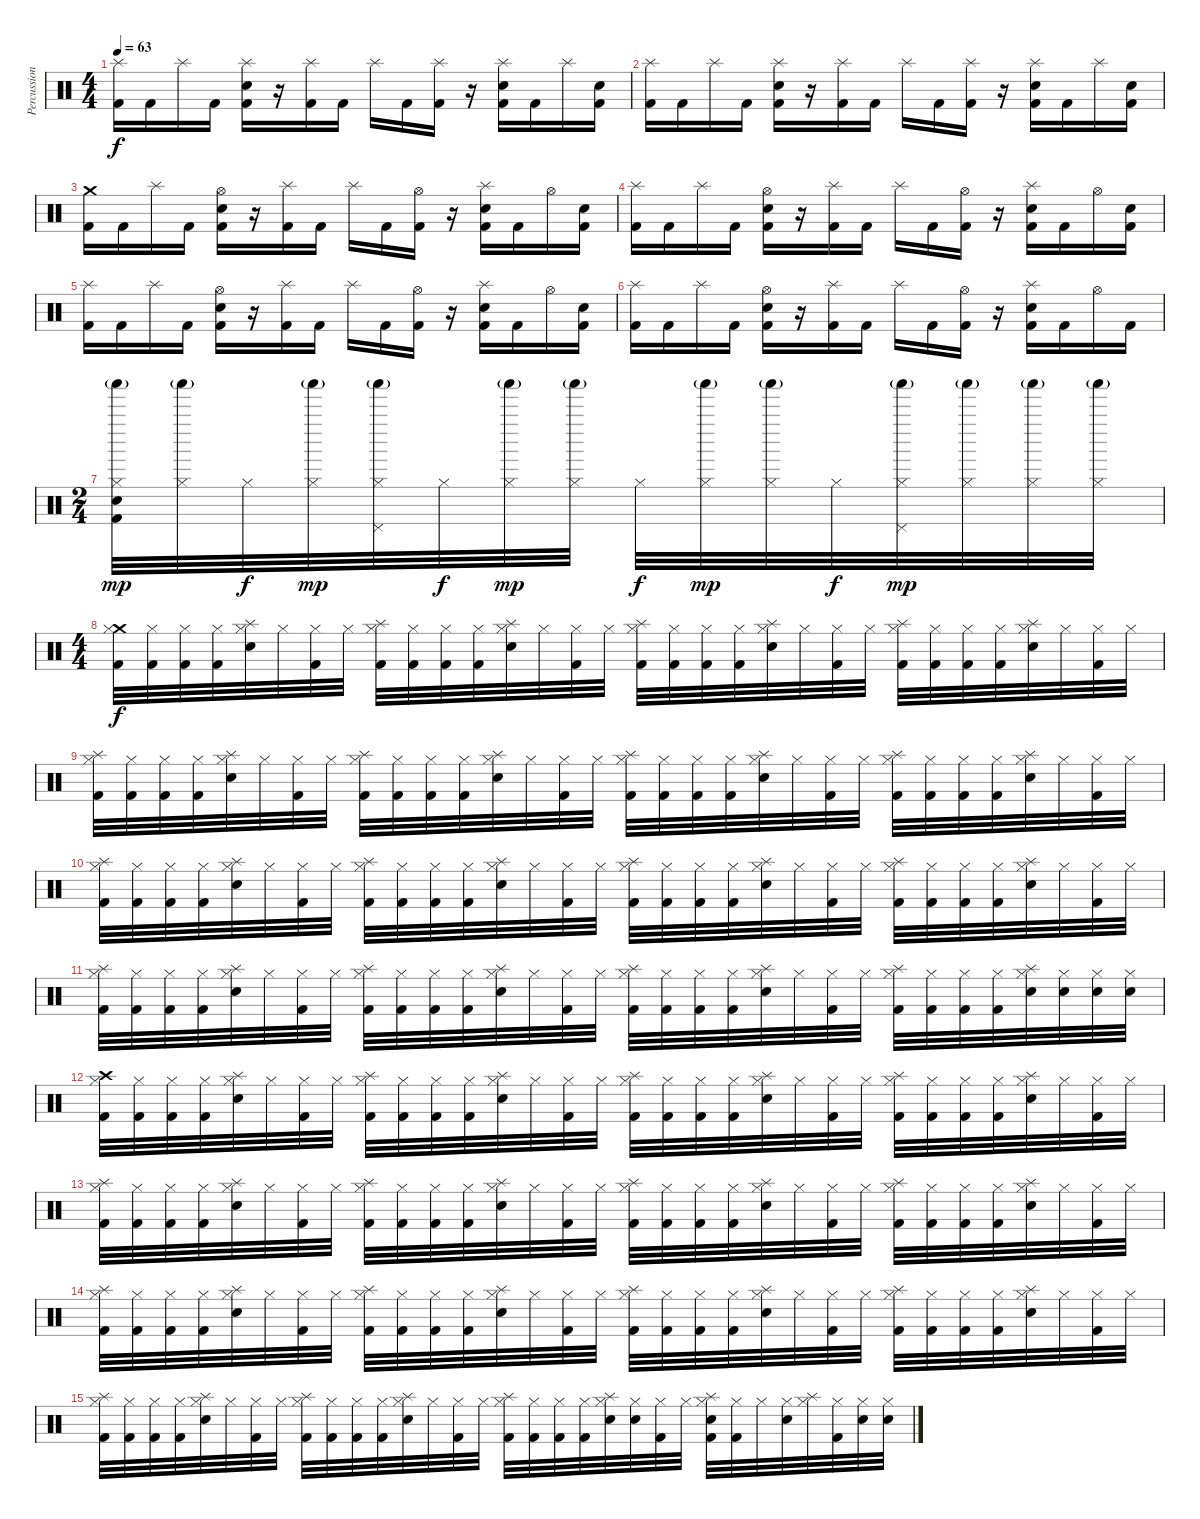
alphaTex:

\track ("Percussion" "Percussion") {instrument percussion}
\staff {score}
\articulation defaults
\ts (4 4)
\tempo 63
\clef neutral
\ks c
("Splash (hit)" "Kick (hit) 2").16{dy f} "Kick (hit) 2".16 "Splash (hit)".16 "Kick (hit) 2".16 ("Splash (hit)" "Electric Snare (hit)" "Kick (hit) 2").16 r.16 ("Splash (hit)" "Kick (hit) 2").16 "Kick (hit) 2".16 "Splash (hit)".16 "Kick (hit) 2".16 ("Splash (hit)" "Kick (hit) 2").16 r.16 ("Splash (hit)" "Electric Snare (hit)" "Kick (hit) 2").16 "Kick (hit) 2".16 "Splash (hit)".16 ("Electric Snare (hit)" "Kick (hit) 2").16 |
("Splash (hit)" "Kick (hit) 2").16 "Kick (hit) 2".16 "Splash (hit)".16 "Kick (hit) 2".16 ("Splash (hit)" "Electric Snare (hit)" "Kick (hit) 2").16 r.16 ("Splash (hit)" "Kick (hit) 2").16 "Kick (hit) 2".16 "Splash (hit)".16 "Kick (hit) 2".16 ("Splash (hit)" "Kick (hit) 2").16 r.16 ("Splash (hit)" "Electric Snare (hit)" "Kick (hit) 2").16 "Kick (hit) 2".16 "Splash (hit)".16 ("Electric Snare (hit)" "Kick (hit) 2").16 |
("Crash medium (hit)" "Kick (hit) 2").16 "Kick (hit) 2".16 "Splash (hit)".16 "Kick (hit) 2".16 ("Hi-Hat (open)" "Electric Snare (hit)" "Kick (hit) 2").16 r.16 ("Splash (hit)" "Kick (hit) 2").16 "Kick (hit) 2".16 "Splash (hit)".16 "Kick (hit) 2".16 ("Hi-Hat (open)" "Kick (hit) 2").16 r.16 ("Splash (hit)" "Electric Snare (hit)" "Kick (hit) 2").16 "Kick (hit) 2".16 "Hi-Hat (open)".16 ("Electric Snare (hit)" "Kick (hit) 2").16 |
("Splash (hit)" "Kick (hit) 2").16 "Kick (hit) 2".16 "Splash (hit)".16 "Kick (hit) 2".16 ("Hi-Hat (open)" "Electric Snare (hit)" "Kick (hit) 2").16 r.16 ("Splash (hit)" "Kick (hit) 2").16 "Kick (hit) 2".16 "Splash (hit)".16 "Kick (hit) 2".16 ("Hi-Hat (open)" "Kick (hit) 2").16 r.16 ("Splash (hit)" "Electric Snare (hit)" "Kick (hit) 2").16 "Kick (hit) 2".16 "Hi-Hat (open)".16 ("Electric Snare (hit)" "Kick (hit) 2").16 |
("Splash (hit)" "Kick (hit) 2").16 "Kick (hit) 2".16 "Splash (hit)".16 "Kick (hit) 2".16 ("Hi-Hat (open)" "Electric Snare (hit)" "Kick (hit) 2").16 r.16 ("Splash (hit)" "Kick (hit) 2").16 "Kick (hit) 2".16 "Splash (hit)".16 "Kick (hit) 2".16 ("Hi-Hat (open)" "Kick (hit) 2").16 r.16 ("Splash (hit)" "Electric Snare (hit)" "Kick (hit) 2").16 "Kick (hit) 2".16 "Hi-Hat (open)".16 ("Electric Snare (hit)" "Kick (hit) 2").16 |
("Splash (hit)" "Kick (hit) 2").16 "Kick (hit) 2".16 "Splash (hit)".16 "Kick (hit) 2".16 ("Hi-Hat (open)" "Electric Snare (hit)" "Kick (hit) 2").16 r.16 ("Splash (hit)" "Kick (hit) 2").16 "Kick (hit) 2".16 "Splash (hit)".16 "Kick (hit) 2".16 ("Hi-Hat (open)" "Kick (hit) 2").16 r.16 ("Splash (hit)" "Electric Snare (hit)" "Kick (hit) 2").16 "Kick (hit) 2".16 "Hi-Hat (open)".16 "Kick (hit) 2".16 |
\ts (2 4)
("Hi-Hat (closed)" "Shaker (hit)"{g} "Electric Snare (hit)" "Kick (hit) 2").32{dy mp} ("Hi-Hat (closed)" "Shaker (hit)"{g}).32 "Hi-Hat (closed)".32{dy f} ("Hi-Hat (closed)" "Shaker (hit)"{g}).32{dy mp} ("Hi-Hat (closed)" "Shaker (hit)"{g} "Pedal Hi-Hat (hit)").32 "Hi-Hat (closed)".32{dy f} ("Hi-Hat (closed)" "Shaker (hit)"{g}).32{dy mp} ("Hi-Hat (closed)" "Shaker (hit)"{g}).32 "Hi-Hat (closed)".32{dy f} ("Hi-Hat (closed)" "Shaker (hit)"{g}).32{dy mp} ("Hi-Hat (closed)" "Shaker (hit)"{g}).32 "Hi-Hat (closed)".32{dy f} ("Hi-Hat (closed)" "Shaker (hit)"{g} "Pedal Hi-Hat (hit)").32{dy mp} ("Hi-Hat (closed)" "Shaker (hit)"{g}).32 ("Hi-Hat (closed)" "Shaker (hit)"{g}).32 ("Hi-Hat (closed)" "Shaker (hit)"{g}).32 |
\ts (4 4)
("Crash medium (hit)" "Hi-Hat (closed)" "Kick (hit) 2").32{dy f} ("Hi-Hat (closed)" "Kick (hit) 2").32 ("Hi-Hat (closed)" "Kick (hit) 2").32 ("Hi-Hat (closed)" "Kick (hit) 2").32 ("Splash (hit)" "Hi-Hat (closed)" "Electric Snare (hit)").32 "Hi-Hat (closed)".32 ("Hi-Hat (closed)" "Kick (hit) 2").32 "Hi-Hat (closed)".32 ("Splash (hit)" "Hi-Hat (closed)" "Kick (hit) 2").32 ("Hi-Hat (closed)" "Kick (hit) 2").32 ("Hi-Hat (closed)" "Kick (hit) 2").32 ("Hi-Hat (closed)" "Kick (hit) 2").32 ("Splash (hit)" "Hi-Hat (closed)" "Electric Snare (hit)").32 "Hi-Hat (closed)".32 ("Hi-Hat (closed)" "Kick (hit) 2").32 "Hi-Hat (closed)".32 ("Splash (hit)" "Hi-Hat (closed)" "Kick (hit) 2").32 ("Hi-Hat (closed)" "Kick (hit) 2").32 ("Hi-Hat (closed)" "Kick (hit) 2").32 ("Hi-Hat (closed)" "Kick (hit) 2").32 ("Splash (hit)" "Hi-Hat (closed)" "Electric Snare (hit)").32 "Hi-Hat (closed)".32 ("Hi-Hat (closed)" "Kick (hit) 2").32 "Hi-Hat (closed)".32 ("Splash (hit)" "Hi-Hat (closed)" "Kick (hit) 2").32 ("Hi-Hat (closed)" "Kick (hit) 2").32 ("Hi-Hat (closed)" "Kick (hit) 2").32 ("Hi-Hat (closed)" "Kick (hit) 2").32 ("Splash (hit)" "Hi-Hat (closed)" "Electric Snare (hit)").32 "Hi-Hat (closed)".32 ("Hi-Hat (closed)" "Kick (hit) 2").32 "Hi-Hat (closed)".32 |
("Splash (hit)" "Hi-Hat (closed)" "Kick (hit) 2").32 ("Hi-Hat (closed)" "Kick (hit) 2").32 ("Hi-Hat (closed)" "Kick (hit) 2").32 ("Hi-Hat (closed)" "Kick (hit) 2").32 ("Splash (hit)" "Hi-Hat (closed)" "Electric Snare (hit)").32 "Hi-Hat (closed)".32 ("Hi-Hat (closed)" "Kick (hit) 2").32 "Hi-Hat (closed)".32 ("Splash (hit)" "Hi-Hat (closed)" "Kick (hit) 2").32 ("Hi-Hat (closed)" "Kick (hit) 2").32 ("Hi-Hat (closed)" "Kick (hit) 2").32 ("Hi-Hat (closed)" "Kick (hit) 2").32 ("Splash (hit)" "Hi-Hat (closed)" "Electric Snare (hit)").32 "Hi-Hat (closed)".32 ("Hi-Hat (closed)" "Kick (hit) 2").32 "Hi-Hat (closed)".32 ("Splash (hit)" "Hi-Hat (closed)" "Kick (hit) 2").32 ("Hi-Hat (closed)" "Kick (hit) 2").32 ("Hi-Hat (closed)" "Kick (hit) 2").32 ("Hi-Hat (closed)" "Kick (hit) 2").32 ("Splash (hit)" "Hi-Hat (closed)" "Electric Snare (hit)").32 "Hi-Hat (closed)".32 ("Hi-Hat (closed)" "Kick (hit) 2").32 "Hi-Hat (closed)".32 ("Splash (hit)" "Hi-Hat (closed)" "Kick (hit) 2").32 ("Hi-Hat (closed)" "Kick (hit) 2").32 ("Hi-Hat (closed)" "Kick (hit) 2").32 ("Hi-Hat (closed)" "Kick (hit) 2").32 ("Splash (hit)" "Hi-Hat (closed)" "Electric Snare (hit)").32 "Hi-Hat (closed)".32 ("Hi-Hat (closed)" "Kick (hit) 2").32 "Hi-Hat (closed)".32 |
("Splash (hit)" "Hi-Hat (closed)" "Kick (hit) 2").32 ("Hi-Hat (closed)" "Kick (hit) 2").32 ("Hi-Hat (closed)" "Kick (hit) 2").32 ("Hi-Hat (closed)" "Kick (hit) 2").32 ("Splash (hit)" "Hi-Hat (closed)" "Electric Snare (hit)").32 "Hi-Hat (closed)".32 ("Hi-Hat (closed)" "Kick (hit) 2").32 "Hi-Hat (closed)".32 ("Splash (hit)" "Hi-Hat (closed)" "Kick (hit) 2").32 ("Hi-Hat (closed)" "Kick (hit) 2").32 ("Hi-Hat (closed)" "Kick (hit) 2").32 ("Hi-Hat (closed)" "Kick (hit) 2").32 ("Splash (hit)" "Hi-Hat (closed)" "Electric Snare (hit)").32 "Hi-Hat (closed)".32 ("Hi-Hat (closed)" "Kick (hit) 2").32 "Hi-Hat (closed)".32 ("Splash (hit)" "Hi-Hat (closed)" "Kick (hit) 2").32 ("Hi-Hat (closed)" "Kick (hit) 2").32 ("Hi-Hat (closed)" "Kick (hit) 2").32 ("Hi-Hat (closed)" "Kick (hit) 2").32 ("Splash (hit)" "Hi-Hat (closed)" "Electric Snare (hit)").32 "Hi-Hat (closed)".32 ("Hi-Hat (closed)" "Kick (hit) 2").32 "Hi-Hat (closed)".32 ("Splash (hit)" "Hi-Hat (closed)" "Kick (hit) 2").32 ("Hi-Hat (closed)" "Kick (hit) 2").32 ("Hi-Hat (closed)" "Kick (hit) 2").32 ("Hi-Hat (closed)" "Kick (hit) 2").32 ("Splash (hit)" "Hi-Hat (closed)" "Electric Snare (hit)").32 "Hi-Hat (closed)".32 ("Hi-Hat (closed)" "Kick (hit) 2").32 "Hi-Hat (closed)".32 |
("Splash (hit)" "Hi-Hat (closed)" "Kick (hit) 2").32 ("Hi-Hat (closed)" "Kick (hit) 2").32 ("Hi-Hat (closed)" "Kick (hit) 2").32 ("Hi-Hat (closed)" "Kick (hit) 2").32 ("Splash (hit)" "Hi-Hat (closed)" "Electric Snare (hit)").32 "Hi-Hat (closed)".32 ("Hi-Hat (closed)" "Kick (hit) 2").32 "Hi-Hat (closed)".32 ("Splash (hit)" "Hi-Hat (closed)" "Kick (hit) 2").32 ("Hi-Hat (closed)" "Kick (hit) 2").32 ("Hi-Hat (closed)" "Kick (hit) 2").32 ("Hi-Hat (closed)" "Kick (hit) 2").32 ("Splash (hit)" "Hi-Hat (closed)" "Electric Snare (hit)").32 "Hi-Hat (closed)".32 ("Hi-Hat (closed)" "Kick (hit) 2").32 "Hi-Hat (closed)".32 ("Splash (hit)" "Hi-Hat (closed)" "Kick (hit) 2").32 ("Hi-Hat (closed)" "Kick (hit) 2").32 ("Hi-Hat (closed)" "Kick (hit) 2").32 ("Hi-Hat (closed)" "Kick (hit) 2").32 ("Splash (hit)" "Hi-Hat (closed)" "Electric Snare (hit)").32 "Hi-Hat (closed)".32 ("Hi-Hat (closed)" "Kick (hit) 2").32 "Hi-Hat (closed)".32 ("Splash (hit)" "Hi-Hat (closed)" "Kick (hit) 2").32 ("Hi-Hat (closed)" "Kick (hit) 2").32 ("Hi-Hat (closed)" "Kick (hit) 2").32 ("Hi-Hat (closed)" "Kick (hit) 2").32 ("Splash (hit)" "Hi-Hat (closed)" "Electric Snare (hit)").32 ("Hi-Hat (closed)" "Electric Snare (hit)").32 ("Hi-Hat (closed)" "Electric Snare (hit)").32 ("Hi-Hat (closed)" "Electric Snare (hit)").32 |
("Crash high (hit)" "Hi-Hat (closed)" "Kick (hit) 2").32 ("Hi-Hat (closed)" "Kick (hit) 2").32 ("Hi-Hat (closed)" "Kick (hit) 2").32 ("Hi-Hat (closed)" "Kick (hit) 2").32 ("Splash (hit)" "Hi-Hat (closed)" "Electric Snare (hit)").32 "Hi-Hat (closed)".32 ("Hi-Hat (closed)" "Kick (hit) 2").32 "Hi-Hat (closed)".32 ("Splash (hit)" "Hi-Hat (closed)" "Kick (hit) 2").32 ("Hi-Hat (closed)" "Kick (hit) 2").32 ("Hi-Hat (closed)" "Kick (hit) 2").32 ("Hi-Hat (closed)" "Kick (hit) 2").32 ("Splash (hit)" "Hi-Hat (closed)" "Electric Snare (hit)").32 "Hi-Hat (closed)".32 ("Hi-Hat (closed)" "Kick (hit) 2").32 "Hi-Hat (closed)".32 ("Splash (hit)" "Hi-Hat (closed)" "Kick (hit) 2").32 ("Hi-Hat (closed)" "Kick (hit) 2").32 ("Hi-Hat (closed)" "Kick (hit) 2").32 ("Hi-Hat (closed)" "Kick (hit) 2").32 ("Splash (hit)" "Hi-Hat (closed)" "Electric Snare (hit)").32 "Hi-Hat (closed)".32 ("Hi-Hat (closed)" "Kick (hit) 2").32 "Hi-Hat (closed)".32 ("Splash (hit)" "Hi-Hat (closed)" "Kick (hit) 2").32 ("Hi-Hat (closed)" "Kick (hit) 2").32 ("Hi-Hat (closed)" "Kick (hit) 2").32 ("Hi-Hat (closed)" "Kick (hit) 2").32 ("Splash (hit)" "Hi-Hat (closed)" "Electric Snare (hit)").32 "Hi-Hat (closed)".32 ("Hi-Hat (closed)" "Kick (hit) 2").32 "Hi-Hat (closed)".32 |
("Splash (hit)" "Hi-Hat (closed)" "Kick (hit) 2").32 ("Hi-Hat (closed)" "Kick (hit) 2").32 ("Hi-Hat (closed)" "Kick (hit) 2").32 ("Hi-Hat (closed)" "Kick (hit) 2").32 ("Splash (hit)" "Hi-Hat (closed)" "Electric Snare (hit)").32 "Hi-Hat (closed)".32 ("Hi-Hat (closed)" "Kick (hit) 2").32 "Hi-Hat (closed)".32 ("Splash (hit)" "Hi-Hat (closed)" "Kick (hit) 2").32 ("Hi-Hat (closed)" "Kick (hit) 2").32 ("Hi-Hat (closed)" "Kick (hit) 2").32 ("Hi-Hat (closed)" "Kick (hit) 2").32 ("Splash (hit)" "Hi-Hat (closed)" "Electric Snare (hit)").32 "Hi-Hat (closed)".32 ("Hi-Hat (closed)" "Kick (hit) 2").32 "Hi-Hat (closed)".32 ("Splash (hit)" "Hi-Hat (closed)" "Kick (hit) 2").32 ("Hi-Hat (closed)" "Kick (hit) 2").32 ("Hi-Hat (closed)" "Kick (hit) 2").32 ("Hi-Hat (closed)" "Kick (hit) 2").32 ("Splash (hit)" "Hi-Hat (closed)" "Electric Snare (hit)").32 "Hi-Hat (closed)".32 ("Hi-Hat (closed)" "Kick (hit) 2").32 "Hi-Hat (closed)".32 ("Splash (hit)" "Hi-Hat (closed)" "Kick (hit) 2").32 ("Hi-Hat (closed)" "Kick (hit) 2").32 ("Hi-Hat (closed)" "Kick (hit) 2").32 ("Hi-Hat (closed)" "Kick (hit) 2").32 ("Splash (hit)" "Hi-Hat (closed)" "Electric Snare (hit)").32 "Hi-Hat (closed)".32 ("Hi-Hat (closed)" "Kick (hit) 2").32 "Hi-Hat (closed)".32 |
("Splash (hit)" "Hi-Hat (closed)" "Kick (hit) 2").32 ("Hi-Hat (closed)" "Kick (hit) 2").32 ("Hi-Hat (closed)" "Kick (hit) 2").32 ("Hi-Hat (closed)" "Kick (hit) 2").32 ("Splash (hit)" "Hi-Hat (closed)" "Electric Snare (hit)").32 "Hi-Hat (closed)".32 ("Hi-Hat (closed)" "Kick (hit) 2").32 "Hi-Hat (closed)".32 ("Splash (hit)" "Hi-Hat (closed)" "Kick (hit) 2").32 ("Hi-Hat (closed)" "Kick (hit) 2").32 ("Hi-Hat (closed)" "Kick (hit) 2").32 ("Hi-Hat (closed)" "Kick (hit) 2").32 ("Splash (hit)" "Hi-Hat (closed)" "Electric Snare (hit)").32 "Hi-Hat (closed)".32 ("Hi-Hat (closed)" "Kick (hit) 2").32 "Hi-Hat (closed)".32 ("Splash (hit)" "Hi-Hat (closed)" "Kick (hit) 2").32 ("Hi-Hat (closed)" "Kick (hit) 2").32 ("Hi-Hat (closed)" "Kick (hit) 2").32 ("Hi-Hat (closed)" "Kick (hit) 2").32 ("Splash (hit)" "Hi-Hat (closed)" "Electric Snare (hit)").32 "Hi-Hat (closed)".32 ("Hi-Hat (closed)" "Kick (hit) 2").32 "Hi-Hat (closed)".32 ("Splash (hit)" "Hi-Hat (closed)" "Kick (hit) 2").32 ("Hi-Hat (closed)" "Kick (hit) 2").32 ("Hi-Hat (closed)" "Kick (hit) 2").32 ("Hi-Hat (closed)" "Kick (hit) 2").32 ("Splash (hit)" "Hi-Hat (closed)" "Electric Snare (hit)").32 "Hi-Hat (closed)".32 ("Hi-Hat (closed)" "Kick (hit) 2").32 "Hi-Hat (closed)".32 |
("Splash (hit)" "Hi-Hat (closed)" "Kick (hit) 2").32 ("Hi-Hat (closed)" "Kick (hit) 2").32 ("Hi-Hat (closed)" "Kick (hit) 2").32 ("Hi-Hat (closed)" "Kick (hit) 2").32 ("Splash (hit)" "Hi-Hat (closed)" "Electric Snare (hit)").32 "Hi-Hat (closed)".32 ("Hi-Hat (closed)" "Kick (hit) 2").32 "Hi-Hat (closed)".32 ("Splash (hit)" "Hi-Hat (closed)" "Kick (hit) 2").32 ("Hi-Hat (closed)" "Kick (hit) 2").32 ("Hi-Hat (closed)" "Kick (hit) 2").32 ("Hi-Hat (closed)" "Kick (hit) 2").32 ("Splash (hit)" "Hi-Hat (closed)" "Electric Snare (hit)").32 "Hi-Hat (closed)".32 ("Hi-Hat (closed)" "Kick (hit) 2").32 "Hi-Hat (closed)".32 ("Splash (hit)" "Hi-Hat (closed)" "Kick (hit) 2").32 ("Hi-Hat (closed)" "Kick (hit) 2").32 ("Hi-Hat (closed)" "Kick (hit) 2").32 ("Hi-Hat (closed)" "Kick (hit) 2").32 ("Splash (hit)" "Hi-Hat (closed)" "Electric Snare (hit)").32 ("Hi-Hat (closed)" "Electric Snare (hit)").32 ("Hi-Hat (closed)" "Kick (hit) 2").32 "Hi-Hat (closed)".32 ("Splash (hit)" "Hi-Hat (closed)" "Electric Snare (hit)" "Kick (hit) 2").32 ("Hi-Hat (closed)" "Kick (hit) 2").32 "Hi-Hat (closed)".32 ("Hi-Hat (closed)" "Electric Snare (hit)").32 ("Splash (hit)" "Hi-Hat (closed)").32 ("Hi-Hat (closed)" "Kick (hit) 2").32 ("Hi-Hat (closed)" "Electric Snare (hit)").32 ("Hi-Hat (closed)" "Electric Snare (hit)").32
